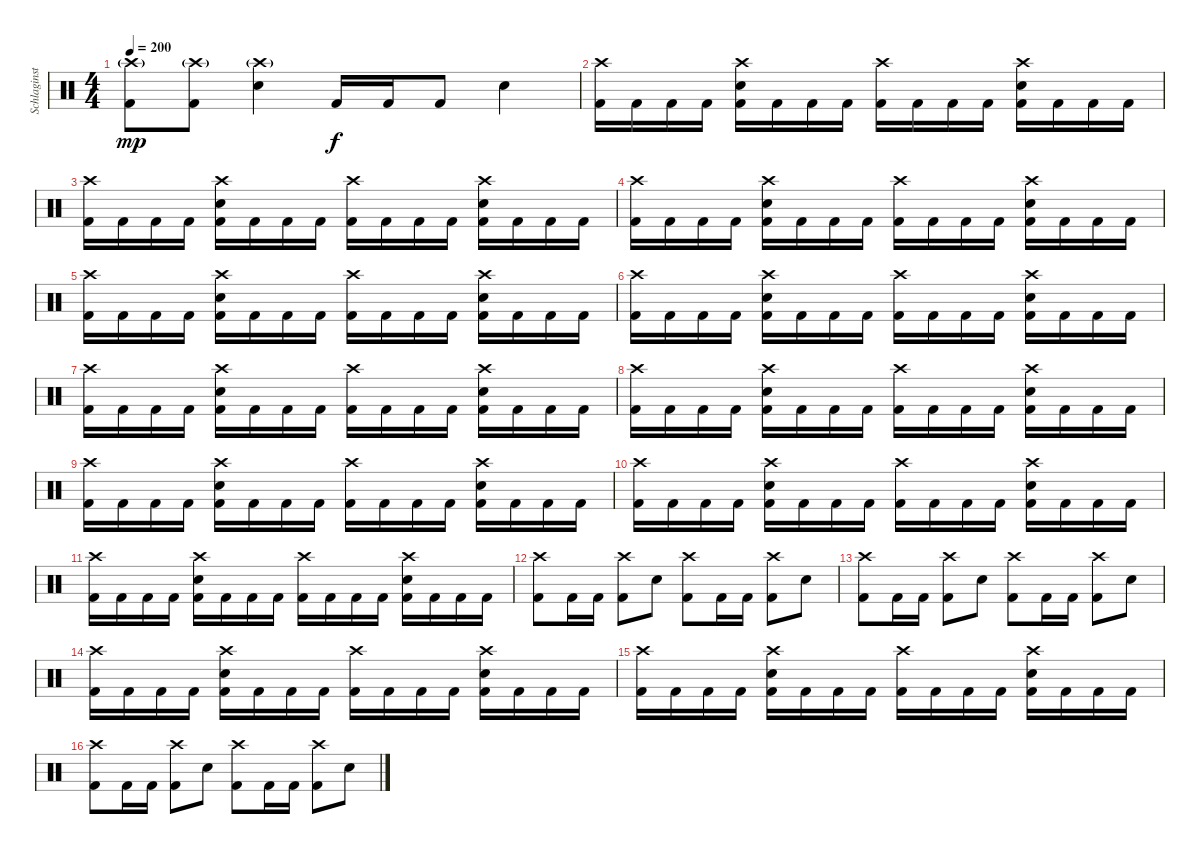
\track ("Schlaginstrumente - Auswahl" "Schlaginst") {instrument percussion}
\staff {score}
\articulation defaults
\ts (4 4)
\tempo 200
\clef neutral
\ks c
("Crash high (hit)"{g} "Kick (hit) 2").8{dy mp} ("Crash high (hit)"{g} "Kick (hit) 2").8 ("Crash high (hit)"{g} "Snare (hit) 2").4 "Kick (hit) 2".16{dy f} "Kick (hit) 2".16 "Kick (hit) 2".8 "Snare (hit) 2".4 |
("Crash high (hit)" "Kick (hit) 2").16 "Kick (hit) 2".16 "Kick (hit) 2".16 "Kick (hit) 2".16 ("Crash high (hit)" "Snare (hit) 2" "Kick (hit) 2").16 "Kick (hit) 2".16 "Kick (hit) 2".16 "Kick (hit) 2".16 ("Crash high (hit)" "Kick (hit) 2").16 "Kick (hit) 2".16 "Kick (hit) 2".16 "Kick (hit) 2".16 ("Crash high (hit)" "Snare (hit) 2" "Kick (hit) 2").16 "Kick (hit) 2".16 "Kick (hit) 2".16 "Kick (hit) 2".16 |
("Crash high (hit)" "Kick (hit) 2").16 "Kick (hit) 2".16 "Kick (hit) 2".16 "Kick (hit) 2".16 ("Crash high (hit)" "Snare (hit) 2" "Kick (hit) 2").16 "Kick (hit) 2".16 "Kick (hit) 2".16 "Kick (hit) 2".16 ("Crash high (hit)" "Kick (hit) 2").16 "Kick (hit) 2".16 "Kick (hit) 2".16 "Kick (hit) 2".16 ("Crash high (hit)" "Snare (hit) 2" "Kick (hit) 2").16 "Kick (hit) 2".16 "Kick (hit) 2".16 "Kick (hit) 2".16 |
("Crash high (hit)" "Kick (hit) 2").16 "Kick (hit) 2".16 "Kick (hit) 2".16 "Kick (hit) 2".16 ("Crash high (hit)" "Snare (hit) 2" "Kick (hit) 2").16 "Kick (hit) 2".16 "Kick (hit) 2".16 "Kick (hit) 2".16 ("Crash high (hit)" "Kick (hit) 2").16 "Kick (hit) 2".16 "Kick (hit) 2".16 "Kick (hit) 2".16 ("Crash high (hit)" "Snare (hit) 2" "Kick (hit) 2").16 "Kick (hit) 2".16 "Kick (hit) 2".16 "Kick (hit) 2".16 |
("Crash high (hit)" "Kick (hit) 2").16 "Kick (hit) 2".16 "Kick (hit) 2".16 "Kick (hit) 2".16 ("Crash high (hit)" "Snare (hit) 2" "Kick (hit) 2").16 "Kick (hit) 2".16 "Kick (hit) 2".16 "Kick (hit) 2".16 ("Crash high (hit)" "Kick (hit) 2").16 "Kick (hit) 2".16 "Kick (hit) 2".16 "Kick (hit) 2".16 ("Crash high (hit)" "Snare (hit) 2" "Kick (hit) 2").16 "Kick (hit) 2".16 "Kick (hit) 2".16 "Kick (hit) 2".16 |
("Crash high (hit)" "Kick (hit) 2").16 "Kick (hit) 2".16 "Kick (hit) 2".16 "Kick (hit) 2".16 ("Crash high (hit)" "Snare (hit) 2" "Kick (hit) 2").16 "Kick (hit) 2".16 "Kick (hit) 2".16 "Kick (hit) 2".16 ("Crash high (hit)" "Kick (hit) 2").16 "Kick (hit) 2".16 "Kick (hit) 2".16 "Kick (hit) 2".16 ("Crash high (hit)" "Snare (hit) 2" "Kick (hit) 2").16 "Kick (hit) 2".16 "Kick (hit) 2".16 "Kick (hit) 2".16 |
("Crash high (hit)" "Kick (hit) 2").16 "Kick (hit) 2".16 "Kick (hit) 2".16 "Kick (hit) 2".16 ("Crash high (hit)" "Snare (hit) 2" "Kick (hit) 2").16 "Kick (hit) 2".16 "Kick (hit) 2".16 "Kick (hit) 2".16 ("Crash high (hit)" "Kick (hit) 2").16 "Kick (hit) 2".16 "Kick (hit) 2".16 "Kick (hit) 2".16 ("Crash high (hit)" "Snare (hit) 2" "Kick (hit) 2").16 "Kick (hit) 2".16 "Kick (hit) 2".16 "Kick (hit) 2".16 |
("Crash high (hit)" "Kick (hit) 2").16 "Kick (hit) 2".16 "Kick (hit) 2".16 "Kick (hit) 2".16 ("Crash high (hit)" "Snare (hit) 2" "Kick (hit) 2").16 "Kick (hit) 2".16 "Kick (hit) 2".16 "Kick (hit) 2".16 ("Crash high (hit)" "Kick (hit) 2").16 "Kick (hit) 2".16 "Kick (hit) 2".16 "Kick (hit) 2".16 ("Crash high (hit)" "Snare (hit) 2" "Kick (hit) 2").16 "Kick (hit) 2".16 "Kick (hit) 2".16 "Kick (hit) 2".16 |
("Crash high (hit)" "Kick (hit) 2").16 "Kick (hit) 2".16 "Kick (hit) 2".16 "Kick (hit) 2".16 ("Crash high (hit)" "Snare (hit) 2" "Kick (hit) 2").16 "Kick (hit) 2".16 "Kick (hit) 2".16 "Kick (hit) 2".16 ("Crash high (hit)" "Kick (hit) 2").16 "Kick (hit) 2".16 "Kick (hit) 2".16 "Kick (hit) 2".16 ("Crash high (hit)" "Snare (hit) 2" "Kick (hit) 2").16 "Kick (hit) 2".16 "Kick (hit) 2".16 "Kick (hit) 2".16 |
("Crash high (hit)" "Kick (hit) 2").16 "Kick (hit) 2".16 "Kick (hit) 2".16 "Kick (hit) 2".16 ("Crash high (hit)" "Snare (hit) 2" "Kick (hit) 2").16 "Kick (hit) 2".16 "Kick (hit) 2".16 "Kick (hit) 2".16 ("Crash high (hit)" "Kick (hit) 2").16 "Kick (hit) 2".16 "Kick (hit) 2".16 "Kick (hit) 2".16 ("Crash high (hit)" "Snare (hit) 2" "Kick (hit) 2").16 "Kick (hit) 2".16 "Kick (hit) 2".16 "Kick (hit) 2".16 |
("Crash high (hit)" "Kick (hit) 2").16 "Kick (hit) 2".16 "Kick (hit) 2".16 "Kick (hit) 2".16 ("Crash high (hit)" "Snare (hit) 2" "Kick (hit) 2").16 "Kick (hit) 2".16 "Kick (hit) 2".16 "Kick (hit) 2".16 ("Crash high (hit)" "Kick (hit) 2").16 "Kick (hit) 2".16 "Kick (hit) 2".16 "Kick (hit) 2".16 ("Crash high (hit)" "Snare (hit) 2" "Kick (hit) 2").16 "Kick (hit) 2".16 "Kick (hit) 2".16 "Kick (hit) 2".16 |
("Crash high (hit)" "Kick (hit) 2").8 "Kick (hit) 2".16 "Kick (hit) 2".16 ("Crash high (hit)" "Kick (hit) 2").8 "Snare (hit) 2".8 ("Crash high (hit)" "Kick (hit) 2").8 "Kick (hit) 2".16 "Kick (hit) 2".16 ("Crash high (hit)" "Kick (hit) 2").8 "Snare (hit) 2".8 |
("Crash high (hit)" "Kick (hit) 2").8 "Kick (hit) 2".16 "Kick (hit) 2".16 ("Crash high (hit)" "Kick (hit) 2").8 "Snare (hit) 2".8 ("Crash high (hit)" "Kick (hit) 2").8 "Kick (hit) 2".16 "Kick (hit) 2".16 ("Crash high (hit)" "Kick (hit) 2").8 "Snare (hit) 2".8 |
("Crash high (hit)" "Kick (hit) 2").16 "Kick (hit) 2".16 "Kick (hit) 2".16 "Kick (hit) 2".16 ("Crash high (hit)" "Snare (hit) 2" "Kick (hit) 2").16 "Kick (hit) 2".16 "Kick (hit) 2".16 "Kick (hit) 2".16 ("Crash high (hit)" "Kick (hit) 2").16 "Kick (hit) 2".16 "Kick (hit) 2".16 "Kick (hit) 2".16 ("Crash high (hit)" "Snare (hit) 2" "Kick (hit) 2").16 "Kick (hit) 2".16 "Kick (hit) 2".16 "Kick (hit) 2".16 |
("Crash high (hit)" "Kick (hit) 2").16 "Kick (hit) 2".16 "Kick (hit) 2".16 "Kick (hit) 2".16 ("Crash high (hit)" "Snare (hit) 2" "Kick (hit) 2").16 "Kick (hit) 2".16 "Kick (hit) 2".16 "Kick (hit) 2".16 ("Crash high (hit)" "Kick (hit) 2").16 "Kick (hit) 2".16 "Kick (hit) 2".16 "Kick (hit) 2".16 ("Crash high (hit)" "Snare (hit) 2" "Kick (hit) 2").16 "Kick (hit) 2".16 "Kick (hit) 2".16 "Kick (hit) 2".16 |
("Crash high (hit)" "Kick (hit) 2").8 "Kick (hit) 2".16 "Kick (hit) 2".16 ("Crash high (hit)" "Kick (hit) 2").8 "Snare (hit) 2".8 ("Crash high (hit)" "Kick (hit) 2").8 "Kick (hit) 2".16 "Kick (hit) 2".16 ("Crash high (hit)" "Kick (hit) 2").8 "Snare (hit) 2".8
